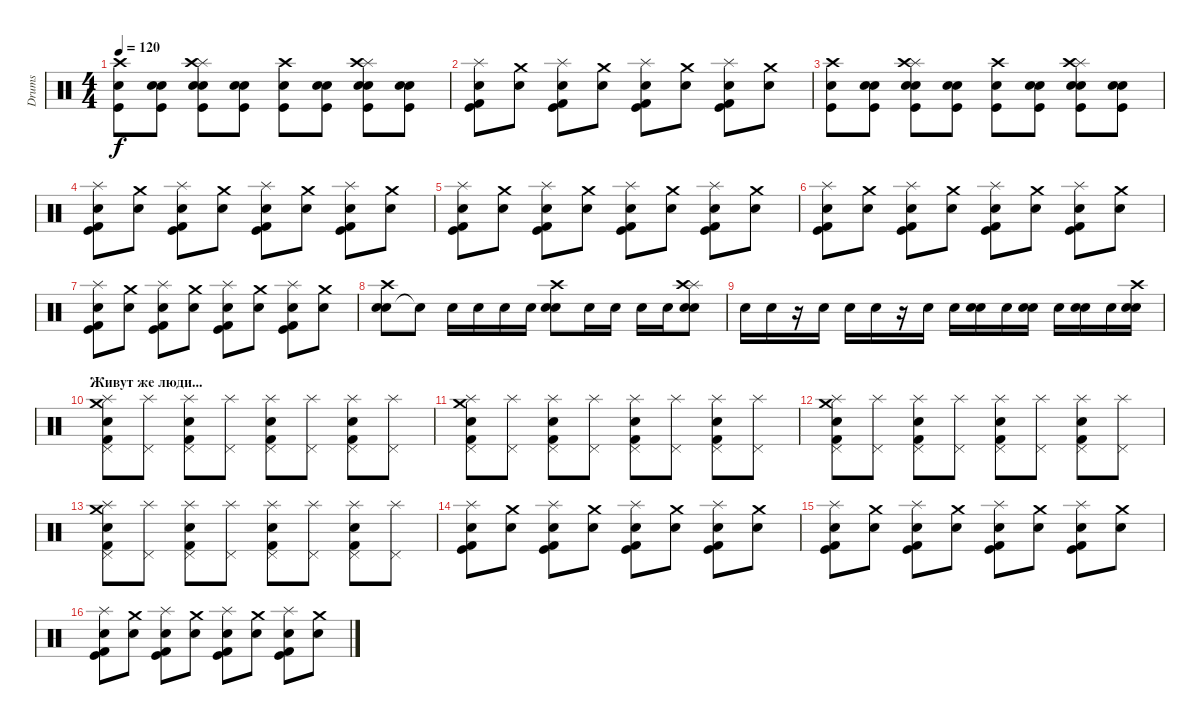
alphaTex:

\track ("Drums" "Drums") {instrument percussion}
\staff {score}
\articulation defaults
\ts (4 4)
\tempo 120
\clef neutral
\ks c
("Kick (hit)" "Electric Snare (hit)" "Crash high (hit)").8{dy f} ("Kick (hit)" "Electric Snare (hit)" "Snare (hit) 2").8 ("Kick (hit)" "Splash (hit)" "Electric Snare (hit)" "Crash high (hit)" "Snare (hit) 2").8 ("Kick (hit)" "Electric Snare (hit)" "Snare (hit) 2").8 ("Kick (hit)" "Electric Snare (hit)" "Crash high (hit)").8 ("Kick (hit)" "Electric Snare (hit)" "Snare (hit) 2").8 ("Kick (hit)" "Splash (hit)" "Electric Snare (hit)" "Crash high (hit)" "Snare (hit) 2").8 ("Kick (hit)" "Electric Snare (hit)" "Snare (hit) 2").8 |
("Kick (hit)" "Electric Snare (hit)" "Kick (hit) 2" "Splash (hit)").8 ("Crash medium (hit)" "Snare (hit) 2").8 ("Kick (hit)" "Electric Snare (hit)" "Kick (hit) 2" "Splash (hit)").8 ("Crash medium (hit)" "Snare (hit) 2").8 ("Kick (hit)" "Electric Snare (hit)" "Kick (hit) 2" "Splash (hit)").8 ("Crash medium (hit)" "Snare (hit) 2").8 ("Kick (hit)" "Electric Snare (hit)" "Kick (hit) 2" "Splash (hit)").8 ("Crash medium (hit)" "Snare (hit) 2").8 |
("Kick (hit)" "Electric Snare (hit)" "Crash high (hit)").8 ("Kick (hit)" "Electric Snare (hit)" "Snare (hit) 2").8 ("Kick (hit)" "Splash (hit)" "Electric Snare (hit)" "Crash high (hit)" "Snare (hit) 2").8 ("Kick (hit)" "Electric Snare (hit)" "Snare (hit) 2").8 ("Kick (hit)" "Electric Snare (hit)" "Crash high (hit)").8 ("Kick (hit)" "Electric Snare (hit)" "Snare (hit) 2").8 ("Kick (hit)" "Splash (hit)" "Electric Snare (hit)" "Crash high (hit)" "Snare (hit) 2").8 ("Kick (hit)" "Electric Snare (hit)" "Snare (hit) 2").8 |
("Kick (hit)" "Electric Snare (hit)" "Kick (hit) 2" "Splash (hit)").8 ("Crash medium (hit)" "Snare (hit) 2").8 ("Kick (hit)" "Electric Snare (hit)" "Kick (hit) 2" "Splash (hit)").8 ("Crash medium (hit)" "Snare (hit) 2").8 ("Kick (hit)" "Electric Snare (hit)" "Kick (hit) 2" "Splash (hit)").8 ("Crash medium (hit)" "Snare (hit) 2").8 ("Kick (hit)" "Electric Snare (hit)" "Kick (hit) 2" "Splash (hit)").8 ("Crash medium (hit)" "Snare (hit) 2").8 |
("Kick (hit)" "Electric Snare (hit)" "Kick (hit) 2" "Splash (hit)").8 ("Crash medium (hit)" "Snare (hit) 2").8 ("Kick (hit)" "Electric Snare (hit)" "Kick (hit) 2" "Splash (hit)").8 ("Crash medium (hit)" "Snare (hit) 2").8 ("Kick (hit)" "Electric Snare (hit)" "Kick (hit) 2" "Splash (hit)").8 ("Crash medium (hit)" "Snare (hit) 2").8 ("Kick (hit)" "Electric Snare (hit)" "Kick (hit) 2" "Splash (hit)").8 ("Crash medium (hit)" "Snare (hit) 2").8 |
("Kick (hit)" "Electric Snare (hit)" "Kick (hit) 2" "Splash (hit)").8 ("Crash medium (hit)" "Snare (hit) 2").8 ("Kick (hit)" "Electric Snare (hit)" "Kick (hit) 2" "Splash (hit)").8 ("Crash medium (hit)" "Snare (hit) 2").8 ("Kick (hit)" "Electric Snare (hit)" "Kick (hit) 2" "Splash (hit)").8 ("Crash medium (hit)" "Snare (hit) 2").8 ("Kick (hit)" "Electric Snare (hit)" "Kick (hit) 2" "Splash (hit)").8 ("Crash medium (hit)" "Snare (hit) 2").8 |
("Kick (hit)" "Electric Snare (hit)" "Kick (hit) 2" "Splash (hit)").8 ("Crash medium (hit)" "Snare (hit) 2").8 ("Kick (hit)" "Electric Snare (hit)" "Kick (hit) 2" "Splash (hit)").8 ("Crash medium (hit)" "Snare (hit) 2").8 ("Kick (hit)" "Electric Snare (hit)" "Kick (hit) 2" "Splash (hit)").8 ("Crash medium (hit)" "Snare (hit) 2").8 ("Kick (hit)" "Electric Snare (hit)" "Kick (hit) 2" "Splash (hit)").8 ("Crash medium (hit)" "Snare (hit) 2").8 |
("Electric Snare (hit)" "Snare (hit) 2" "Crash high (hit)").8 "Snare (hit)"{t}.8 "Snare (hit) 2".16 "Electric Snare (hit)".16 "Snare (hit) 2".16 "Electric Snare (hit)".16 ("Electric Snare (hit)" "Snare (hit) 2" "Crash high (hit)").8 "Snare (hit) 2".16 "Electric Snare (hit)".16 "Snare (hit) 2".16 "Electric Snare (hit)".16 ("Splash (hit)" "Electric Snare (hit)" "Snare (hit) 2" "Crash high (hit)").8 |
"Snare (hit) 2".16 "Snare (hit) 2".16 r.16 "Snare (hit) 2".16 "Snare (hit) 2".16 "Snare (hit) 2".16 r.16 "Snare (hit) 2".16 "Snare (hit) 2".16 ("Electric Snare (hit)" "Snare (hit) 2").16 "Snare (hit) 2".16 ("Electric Snare (hit)" "Snare (hit) 2").16 "Snare (hit) 2".16 ("Electric Snare (hit)" "Snare (hit) 2").16 "Snare (hit) 2".16 ("Crash high (hit)" "Electric Snare (hit)" "Snare (hit) 2").16 |
\section ("" "Живут же люди...")
("Splash (hit)" "Crash medium (hit)" "Electric Snare (hit)" "Kick (hit) 2" "Pedal Hi-Hat (hit)").8 ("Splash (hit)" "Pedal Hi-Hat (hit)").8 ("Splash (hit)" "Electric Snare (hit)" "Kick (hit) 2" "Pedal Hi-Hat (hit)").8 ("Splash (hit)" "Pedal Hi-Hat (hit)").8 ("Splash (hit)" "Electric Snare (hit)" "Kick (hit) 2" "Pedal Hi-Hat (hit)").8 ("Splash (hit)" "Pedal Hi-Hat (hit)").8 ("Splash (hit)" "Electric Snare (hit)" "Kick (hit) 2" "Pedal Hi-Hat (hit)").8 ("Splash (hit)" "Pedal Hi-Hat (hit)").8 |
("Splash (hit)" "Crash medium (hit)" "Electric Snare (hit)" "Kick (hit) 2" "Pedal Hi-Hat (hit)").8 ("Splash (hit)" "Pedal Hi-Hat (hit)").8 ("Splash (hit)" "Electric Snare (hit)" "Kick (hit) 2" "Pedal Hi-Hat (hit)").8 ("Splash (hit)" "Pedal Hi-Hat (hit)").8 ("Splash (hit)" "Electric Snare (hit)" "Kick (hit) 2" "Pedal Hi-Hat (hit)").8 ("Splash (hit)" "Pedal Hi-Hat (hit)").8 ("Splash (hit)" "Electric Snare (hit)" "Kick (hit) 2" "Pedal Hi-Hat (hit)").8 ("Splash (hit)" "Pedal Hi-Hat (hit)").8 |
("Splash (hit)" "Crash medium (hit)" "Electric Snare (hit)" "Kick (hit) 2" "Pedal Hi-Hat (hit)").8 ("Splash (hit)" "Pedal Hi-Hat (hit)").8 ("Splash (hit)" "Electric Snare (hit)" "Kick (hit) 2" "Pedal Hi-Hat (hit)").8 ("Splash (hit)" "Pedal Hi-Hat (hit)").8 ("Splash (hit)" "Electric Snare (hit)" "Kick (hit) 2" "Pedal Hi-Hat (hit)").8 ("Splash (hit)" "Pedal Hi-Hat (hit)").8 ("Splash (hit)" "Electric Snare (hit)" "Kick (hit) 2" "Pedal Hi-Hat (hit)").8 ("Splash (hit)" "Pedal Hi-Hat (hit)").8 |
("Splash (hit)" "Crash medium (hit)" "Electric Snare (hit)" "Kick (hit) 2" "Pedal Hi-Hat (hit)").8 ("Splash (hit)" "Pedal Hi-Hat (hit)").8 ("Splash (hit)" "Electric Snare (hit)" "Kick (hit) 2" "Pedal Hi-Hat (hit)").8 ("Splash (hit)" "Pedal Hi-Hat (hit)").8 ("Splash (hit)" "Electric Snare (hit)" "Kick (hit) 2" "Pedal Hi-Hat (hit)").8 ("Splash (hit)" "Pedal Hi-Hat (hit)").8 ("Splash (hit)" "Electric Snare (hit)" "Kick (hit) 2" "Pedal Hi-Hat (hit)").8 ("Splash (hit)" "Pedal Hi-Hat (hit)").8 |
("Kick (hit)" "Electric Snare (hit)" "Kick (hit) 2" "Splash (hit)").8 ("Crash medium (hit)" "Snare (hit) 2").8 ("Kick (hit)" "Electric Snare (hit)" "Kick (hit) 2" "Splash (hit)").8 ("Crash medium (hit)" "Snare (hit) 2").8 ("Kick (hit)" "Electric Snare (hit)" "Kick (hit) 2" "Splash (hit)").8 ("Crash medium (hit)" "Snare (hit) 2").8 ("Kick (hit)" "Electric Snare (hit)" "Kick (hit) 2" "Splash (hit)").8 ("Crash medium (hit)" "Snare (hit) 2").8 |
("Kick (hit)" "Electric Snare (hit)" "Kick (hit) 2" "Splash (hit)").8 ("Crash medium (hit)" "Snare (hit) 2").8 ("Kick (hit)" "Electric Snare (hit)" "Kick (hit) 2" "Splash (hit)").8 ("Crash medium (hit)" "Snare (hit) 2").8 ("Kick (hit)" "Electric Snare (hit)" "Kick (hit) 2" "Splash (hit)").8 ("Crash medium (hit)" "Snare (hit) 2").8 ("Kick (hit)" "Electric Snare (hit)" "Kick (hit) 2" "Splash (hit)").8 ("Crash medium (hit)" "Snare (hit) 2").8 |
("Kick (hit)" "Electric Snare (hit)" "Kick (hit) 2" "Splash (hit)").8 ("Crash medium (hit)" "Snare (hit) 2").8 ("Kick (hit)" "Electric Snare (hit)" "Kick (hit) 2" "Splash (hit)").8 ("Crash medium (hit)" "Snare (hit) 2").8 ("Kick (hit)" "Electric Snare (hit)" "Kick (hit) 2" "Splash (hit)").8 ("Crash medium (hit)" "Snare (hit) 2").8 ("Kick (hit)" "Electric Snare (hit)" "Kick (hit) 2" "Splash (hit)").8 ("Crash medium (hit)" "Snare (hit) 2").8
